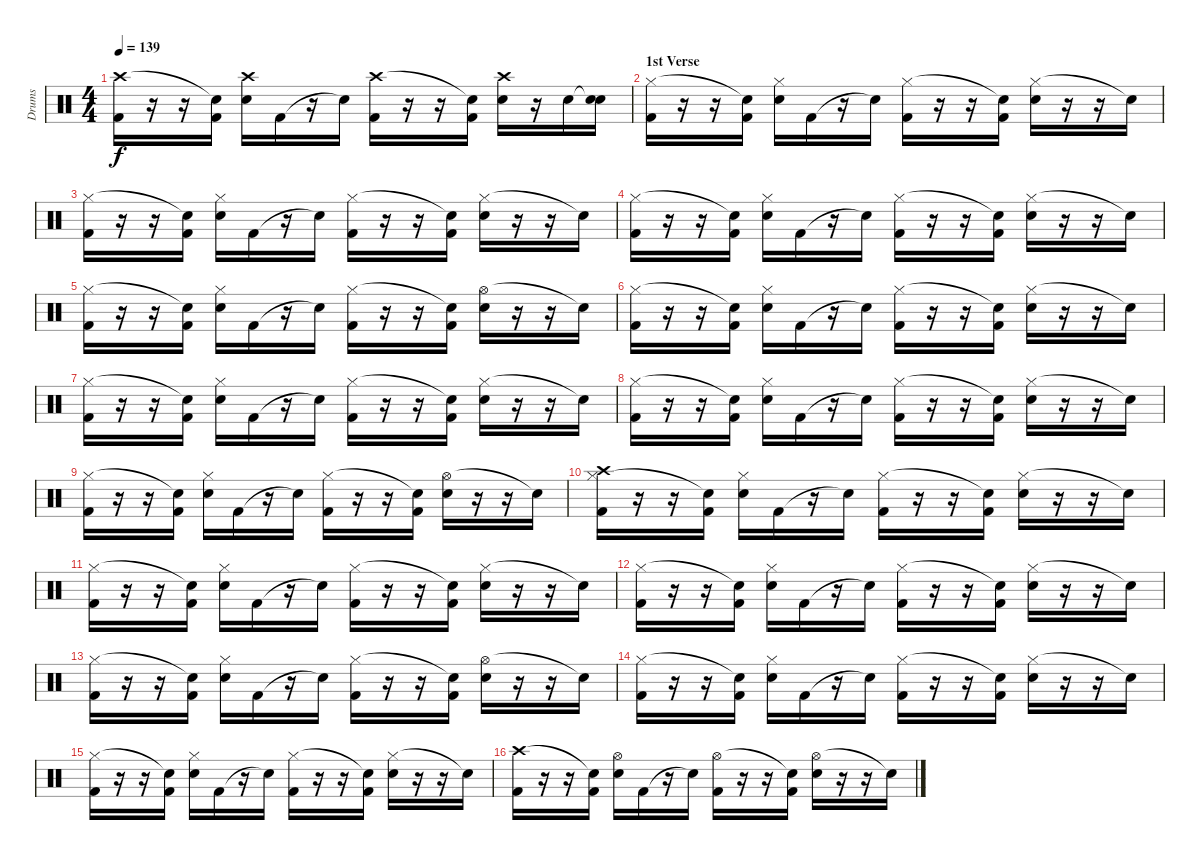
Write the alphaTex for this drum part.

\track ("Drums" "Drums") {instrument percussion}
\staff {score}
\articulation defaults
\ts (4 4)
\tempo 139
\clef neutral
\ks c
("Crash high (hit)" "Kick (hit) 2").16{dy f} r.16 r.16 ("Snare (hit)"{t} "Kick (hit) 2").16 ("Crash high (hit)" "Snare (hit) 2").16 "Kick (hit) 2".16 r.16 "Snare (hit)"{t}.16 ("Crash high (hit)" "Kick (hit) 2").16 r.16 r.16 ("Snare (hit)"{t} "Kick (hit) 2").16 ("Crash high (hit)" "Snare (hit) 2").16 r.16 "Snare (hit) 2".16 ("Snare (hit)"{t} "Snare (hit) 2").16 |
\section ("" "1st Verse")
("Hi-Hat (closed)" "Kick (hit) 2").16 r.16 r.16 ("Snare (hit)"{t} "Kick (hit) 2").16 ("Hi-Hat (closed)" "Snare (hit) 2").16 "Kick (hit) 2".16 r.16 "Snare (hit)"{t}.16 ("Hi-Hat (closed)" "Kick (hit) 2").16 r.16 r.16 ("Snare (hit)"{t} "Kick (hit) 2").16 ("Hi-Hat (closed)" "Snare (hit) 2").16 r.16 r.16 "Snare (hit)"{t}.16 |
("Hi-Hat (closed)" "Kick (hit) 2").16 r.16 r.16 ("Snare (hit)"{t} "Kick (hit) 2").16 ("Hi-Hat (closed)" "Snare (hit) 2").16 "Kick (hit) 2".16 r.16 "Snare (hit)"{t}.16 ("Hi-Hat (closed)" "Kick (hit) 2").16 r.16 r.16 ("Snare (hit)"{t} "Kick (hit) 2").16 ("Hi-Hat (closed)" "Snare (hit) 2").16 r.16 r.16 "Snare (hit)"{t}.16 |
("Hi-Hat (closed)" "Kick (hit) 2").16 r.16 r.16 ("Snare (hit)"{t} "Kick (hit) 2").16 ("Hi-Hat (closed)" "Snare (hit) 2").16 "Kick (hit) 2".16 r.16 "Snare (hit)"{t}.16 ("Hi-Hat (closed)" "Kick (hit) 2").16 r.16 r.16 ("Snare (hit)"{t} "Kick (hit) 2").16 ("Hi-Hat (closed)" "Snare (hit) 2").16 r.16 r.16 "Snare (hit)"{t}.16 |
("Hi-Hat (closed)" "Kick (hit) 2").16 r.16 r.16 ("Snare (hit)"{t} "Kick (hit) 2").16 ("Hi-Hat (closed)" "Snare (hit) 2").16 "Kick (hit) 2".16 r.16 "Snare (hit)"{t}.16 ("Hi-Hat (closed)" "Kick (hit) 2").16 r.16 r.16 ("Snare (hit)"{t} "Kick (hit) 2").16 ("Hi-Hat (open)" "Snare (hit) 2").16 r.16 r.16 "Snare (hit)"{t}.16 |
("Hi-Hat (closed)" "Kick (hit) 2").16 r.16 r.16 ("Snare (hit)"{t} "Kick (hit) 2").16 ("Hi-Hat (closed)" "Snare (hit) 2").16 "Kick (hit) 2".16 r.16 "Snare (hit)"{t}.16 ("Hi-Hat (closed)" "Kick (hit) 2").16 r.16 r.16 ("Snare (hit)"{t} "Kick (hit) 2").16 ("Hi-Hat (closed)" "Snare (hit) 2").16 r.16 r.16 "Snare (hit)"{t}.16 |
("Hi-Hat (closed)" "Kick (hit) 2").16 r.16 r.16 ("Snare (hit)"{t} "Kick (hit) 2").16 ("Hi-Hat (closed)" "Snare (hit) 2").16 "Kick (hit) 2".16 r.16 "Snare (hit)"{t}.16 ("Hi-Hat (closed)" "Kick (hit) 2").16 r.16 r.16 ("Snare (hit)"{t} "Kick (hit) 2").16 ("Hi-Hat (closed)" "Snare (hit) 2").16 r.16 r.16 "Snare (hit)"{t}.16 |
("Hi-Hat (closed)" "Kick (hit) 2").16 r.16 r.16 ("Snare (hit)"{t} "Kick (hit) 2").16 ("Hi-Hat (closed)" "Snare (hit) 2").16 "Kick (hit) 2".16 r.16 "Snare (hit)"{t}.16 ("Hi-Hat (closed)" "Kick (hit) 2").16 r.16 r.16 ("Snare (hit)"{t} "Kick (hit) 2").16 ("Hi-Hat (closed)" "Snare (hit) 2").16 r.16 r.16 "Snare (hit)"{t}.16 |
("Hi-Hat (closed)" "Kick (hit) 2").16 r.16 r.16 ("Snare (hit)"{t} "Kick (hit) 2").16 ("Hi-Hat (closed)" "Snare (hit) 2").16 "Kick (hit) 2".16 r.16 "Snare (hit)"{t}.16 ("Hi-Hat (closed)" "Kick (hit) 2").16 r.16 r.16 ("Snare (hit)"{t} "Kick (hit) 2").16 ("Hi-Hat (open)" "Snare (hit) 2").16 r.16 r.16 "Snare (hit)"{t}.16 |
("Hi-Hat (closed)" "Crash high (hit)" "Kick (hit) 2").16 r.16 r.16 ("Snare (hit)"{t} "Kick (hit) 2").16 ("Hi-Hat (closed)" "Snare (hit) 2").16 "Kick (hit) 2".16 r.16 "Snare (hit)"{t}.16 ("Hi-Hat (closed)" "Kick (hit) 2").16 r.16 r.16 ("Snare (hit)"{t} "Kick (hit) 2").16 ("Hi-Hat (closed)" "Snare (hit) 2").16 r.16 r.16 "Snare (hit)"{t}.16 |
("Hi-Hat (closed)" "Kick (hit) 2").16 r.16 r.16 ("Snare (hit)"{t} "Kick (hit) 2").16 ("Hi-Hat (closed)" "Snare (hit) 2").16 "Kick (hit) 2".16 r.16 "Snare (hit)"{t}.16 ("Hi-Hat (closed)" "Kick (hit) 2").16 r.16 r.16 ("Snare (hit)"{t} "Kick (hit) 2").16 ("Hi-Hat (closed)" "Snare (hit) 2").16 r.16 r.16 "Snare (hit)"{t}.16 |
("Hi-Hat (closed)" "Kick (hit) 2").16 r.16 r.16 ("Snare (hit)"{t} "Kick (hit) 2").16 ("Hi-Hat (closed)" "Snare (hit) 2").16 "Kick (hit) 2".16 r.16 "Snare (hit)"{t}.16 ("Hi-Hat (closed)" "Kick (hit) 2").16 r.16 r.16 ("Snare (hit)"{t} "Kick (hit) 2").16 ("Hi-Hat (closed)" "Snare (hit) 2").16 r.16 r.16 "Snare (hit)"{t}.16 |
("Hi-Hat (closed)" "Kick (hit) 2").16 r.16 r.16 ("Snare (hit)"{t} "Kick (hit) 2").16 ("Hi-Hat (closed)" "Snare (hit) 2").16 "Kick (hit) 2".16 r.16 "Snare (hit)"{t}.16 ("Hi-Hat (closed)" "Kick (hit) 2").16 r.16 r.16 ("Snare (hit)"{t} "Kick (hit) 2").16 ("Hi-Hat (open)" "Snare (hit) 2").16 r.16 r.16 "Snare (hit)"{t}.16 |
("Hi-Hat (closed)" "Kick (hit) 2").16 r.16 r.16 ("Snare (hit)"{t} "Kick (hit) 2").16 ("Hi-Hat (closed)" "Snare (hit) 2").16 "Kick (hit) 2".16 r.16 "Snare (hit)"{t}.16 ("Hi-Hat (closed)" "Kick (hit) 2").16 r.16 r.16 ("Snare (hit)"{t} "Kick (hit) 2").16 ("Hi-Hat (closed)" "Snare (hit) 2").16 r.16 r.16 "Snare (hit)"{t}.16 |
("Hi-Hat (closed)" "Kick (hit) 2").16 r.16 r.16 ("Snare (hit)"{t} "Kick (hit) 2").16 ("Hi-Hat (closed)" "Snare (hit) 2").16 "Kick (hit) 2".16 r.16 "Snare (hit)"{t}.16 ("Hi-Hat (closed)" "Kick (hit) 2").16 r.16 r.16 ("Snare (hit)"{t} "Kick (hit) 2").16 ("Hi-Hat (closed)" "Snare (hit) 2").16 r.16 r.16 "Snare (hit)"{t}.16 |
("Crash high (hit)" "Kick (hit) 2").16 r.16 r.16 ("Snare (hit)"{t} "Kick (hit) 2").16 ("Hi-Hat (open)" "Snare (hit) 2").16 "Kick (hit) 2".16 r.16 "Snare (hit)"{t}.16 ("Hi-Hat (open)" "Kick (hit) 2").16 r.16 r.16 ("Snare (hit)"{t} "Kick (hit) 2").16 ("Hi-Hat (open)" "Snare (hit) 2").16 r.16 r.16 "Snare (hit)"{t}.16
